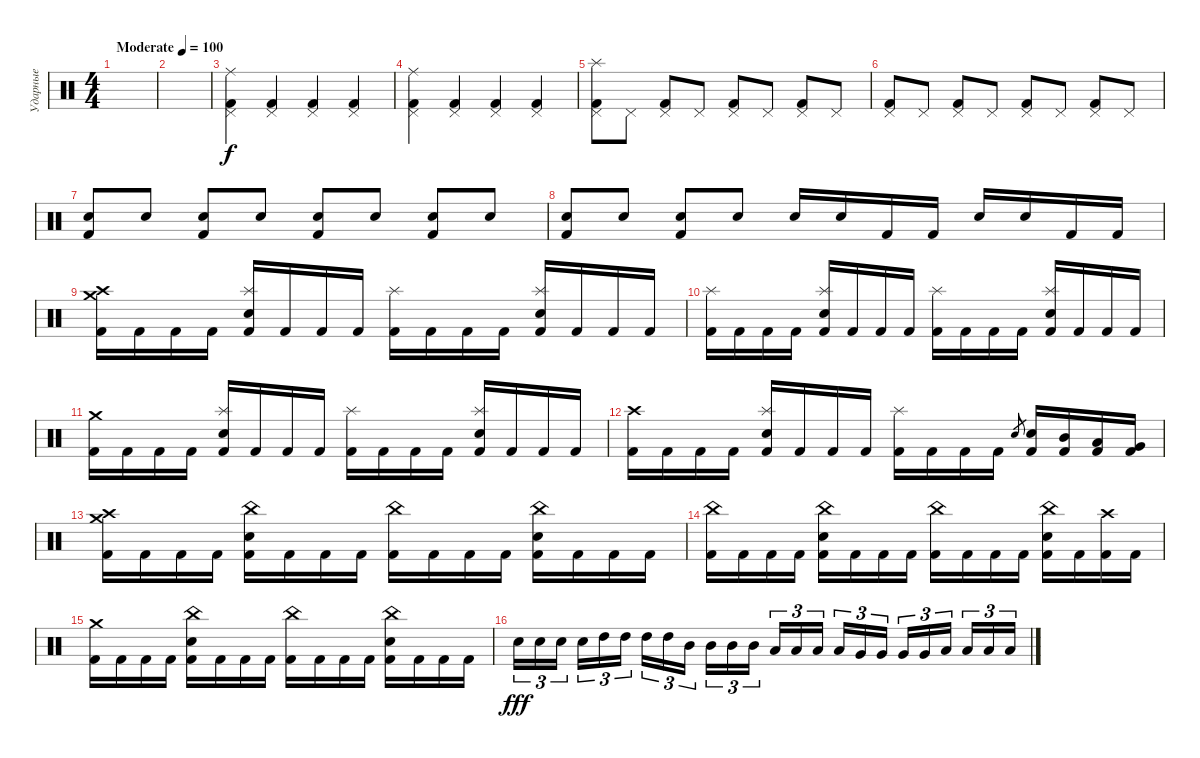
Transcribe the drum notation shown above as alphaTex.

\track ("Ударные" "Ударные") {instrument percussion}
\staff {score}
\articulation defaults
\ts (4 4)
\tempo (100 "Moderate")
\clef neutral
\ks c
|
|
("Ride (middle)" "Pedal Hi-Hat (hit)" "Kick (hit) 2").4 ("Pedal Hi-Hat (hit)" "Kick (hit) 2").4 ("Pedal Hi-Hat (hit)" "Kick (hit) 2").4 ("Pedal Hi-Hat (hit)" "Kick (hit) 2").4 |
("Ride (middle)" "Pedal Hi-Hat (hit)" "Kick (hit) 2").4 ("Pedal Hi-Hat (hit)" "Kick (hit) 2").4 ("Pedal Hi-Hat (hit)" "Kick (hit) 2").4 ("Pedal Hi-Hat (hit)" "Kick (hit) 2").4 |
("Splash (hit)" "Pedal Hi-Hat (hit)" "Kick (hit) 2").8 "Pedal Hi-Hat (hit)".8 ("Pedal Hi-Hat (hit)" "Kick (hit) 2").8 "Pedal Hi-Hat (hit)".8 ("Pedal Hi-Hat (hit)" "Kick (hit) 2").8 "Pedal Hi-Hat (hit)".8 ("Pedal Hi-Hat (hit)" "Kick (hit) 2").8 "Pedal Hi-Hat (hit)".8 |
("Pedal Hi-Hat (hit)" "Kick (hit) 2").8 "Pedal Hi-Hat (hit)".8 ("Pedal Hi-Hat (hit)" "Kick (hit) 2").8 "Pedal Hi-Hat (hit)".8 ("Pedal Hi-Hat (hit)" "Kick (hit) 2").8 "Pedal Hi-Hat (hit)".8 ("Pedal Hi-Hat (hit)" "Kick (hit) 2").8 "Pedal Hi-Hat (hit)".8 |
("Electric Snare (hit)" "Kick (hit) 2").8 "Electric Snare (hit)".8 ("Electric Snare (hit)" "Kick (hit) 2").8 "Electric Snare (hit)".8 ("Electric Snare (hit)" "Kick (hit) 2").8 "Electric Snare (hit)".8 ("Electric Snare (hit)" "Kick (hit) 2").8 "Electric Snare (hit)".8 |
("Electric Snare (hit)" "Kick (hit) 2").8 "Electric Snare (hit)".8 ("Electric Snare (hit)" "Kick (hit) 2").8 "Electric Snare (hit)".8 "Electric Snare (hit)".16 "Electric Snare (hit)".16 "Kick (hit) 2".16 "Kick (hit) 2".16 "Electric Snare (hit)".16 "Electric Snare (hit)".16 "Kick (hit) 2".16 "Kick (hit) 2".16 |
("Crash medium (hit)" "Crash high (hit)" "Kick (hit) 2").16 "Kick (hit) 2".16 "Kick (hit) 2".16 "Kick (hit) 2".16 ("Splash (hit)" "Electric Snare (hit)" "Kick (hit) 2").16 "Kick (hit) 2".16 "Kick (hit) 2".16 "Kick (hit) 2".16 ("Splash (hit)" "Kick (hit) 2").16 "Kick (hit) 2".16 "Kick (hit) 2".16 "Kick (hit) 2".16 ("Splash (hit)" "Electric Snare (hit)" "Kick (hit) 2").16 "Kick (hit) 2".16 "Kick (hit) 2".16 "Kick (hit) 2".16 |
("Splash (hit)" "Kick (hit) 2").16 "Kick (hit) 2".16 "Kick (hit) 2".16 "Kick (hit) 2".16 ("Splash (hit)" "Electric Snare (hit)" "Kick (hit) 2").16 "Kick (hit) 2".16 "Kick (hit) 2".16 "Kick (hit) 2".16 ("Splash (hit)" "Kick (hit) 2").16 "Kick (hit) 2".16 "Kick (hit) 2".16 "Kick (hit) 2".16 ("Splash (hit)" "Electric Snare (hit)" "Kick (hit) 2").16 "Kick (hit) 2".16 "Kick (hit) 2".16 "Kick (hit) 2".16 |
("Crash medium (hit)" "Kick (hit) 2").16 "Kick (hit) 2".16 "Kick (hit) 2".16 "Kick (hit) 2".16 ("Splash (hit)" "Electric Snare (hit)" "Kick (hit) 2").16 "Kick (hit) 2".16 "Kick (hit) 2".16 "Kick (hit) 2".16 ("Splash (hit)" "Kick (hit) 2").16 "Kick (hit) 2".16 "Kick (hit) 2".16 "Kick (hit) 2".16 ("Splash (hit)" "Electric Snare (hit)" "Kick (hit) 2").16 "Kick (hit) 2".16 "Kick (hit) 2".16 "Kick (hit) 2".16 |
("Crash high (hit)" "Kick (hit) 2").16 "Kick (hit) 2".16 "Kick (hit) 2".16 "Kick (hit) 2".16 ("Splash (hit)" "Electric Snare (hit)" "Kick (hit) 2").16 "Kick (hit) 2".16 "Kick (hit) 2".16 "Kick (hit) 2".16 ("Splash (hit)" "Kick (hit) 2").16 "Kick (hit) 2".16 "Kick (hit) 2".16 "Kick (hit) 2".16 "Electric Snare (hit)".8{gr} ("Electric Snare (hit)" "Kick (hit) 2").16 ("Mid Tom (hit)" "Kick (hit) 2").16 ("Low Tom (hit)" "Kick (hit) 2").16 ("Very Low Tom (hit)" "Kick (hit) 2").16 |
("Crash medium (hit)" "Crash high (hit)" "Kick (hit) 2").16 "Kick (hit) 2".16 "Kick (hit) 2".16 "Kick (hit) 2".16 ("China (hit)" "Electric Snare (hit)" "Kick (hit) 2").16 "Kick (hit) 2".16 "Kick (hit) 2".16 "Kick (hit) 2".16 ("China (hit)" "Kick (hit) 2").16 "Kick (hit) 2".16 "Kick (hit) 2".16 "Kick (hit) 2".16 ("China (hit)" "Electric Snare (hit)" "Kick (hit) 2").16 "Kick (hit) 2".16 "Kick (hit) 2".16 "Kick (hit) 2".16 |
("China (hit)" "Kick (hit) 2").16 "Kick (hit) 2".16 "Kick (hit) 2".16 "Kick (hit) 2".16 ("China (hit)" "Electric Snare (hit)" "Kick (hit) 2").16 "Kick (hit) 2".16 "Kick (hit) 2".16 "Kick (hit) 2".16 ("China (hit)" "Kick (hit) 2").16 "Kick (hit) 2".16 "Kick (hit) 2".16 "Kick (hit) 2".16 ("China (hit)" "Electric Snare (hit)" "Kick (hit) 2").16 "Kick (hit) 2".16 ("Crash high (hit)" "Kick (hit) 2").16 "Kick (hit) 2".16 |
("Crash medium (hit)" "Kick (hit) 2").16 "Kick (hit) 2".16 "Kick (hit) 2".16 "Kick (hit) 2".16 ("China (hit)" "Electric Snare (hit)" "Kick (hit) 2").16 "Kick (hit) 2".16 "Kick (hit) 2".16 "Kick (hit) 2".16 ("China (hit)" "Kick (hit) 2").16 "Kick (hit) 2".16 "Kick (hit) 2".16 "Kick (hit) 2".16 ("China (hit)" "Electric Snare (hit)" "Kick (hit) 2").16 "Kick (hit) 2".16 "Kick (hit) 2".16 "Kick (hit) 2".16 |
"Electric Snare (hit)".16{tu (3 2) dy fff} "Electric Snare (hit)".16{tu (3 2)} "Electric Snare (hit)".16{tu (3 2) beam splitsecondary} "Electric Snare (hit)".16{tu (3 2)} "High Tom (hit)".16{tu (3 2)} "High Tom (hit)".16{tu (3 2)} "High Tom (hit)".16{tu (3 2)} "High Tom (hit)".16{tu (3 2)} "Mid Tom (hit)".16{tu (3 2) beam splitsecondary} "Mid Tom (hit)".16{tu (3 2)} "Mid Tom (hit)".16{tu (3 2)} "Mid Tom (hit)".16{tu (3 2)} "Low Tom (hit)".16{tu (3 2)} "Low Tom (hit)".16{tu (3 2)} "Low Tom (hit)".16{tu (3 2) beam splitsecondary} "Low Tom (hit)".16{tu (3 2)} "Very Low Tom (hit)".16{tu (3 2)} "Very Low Tom (hit)".16{tu (3 2)} "Very Low Tom (hit)".16{tu (3 2)} "Very Low Tom (hit)".16{tu (3 2)} "Low Floor Tom (hit)".16{tu (3 2) beam splitsecondary} "Low Floor Tom (hit)".16{tu (3 2)} "Low Floor Tom (hit)".16{tu (3 2)} "Low Floor Tom (hit)".16{tu (3 2)}
